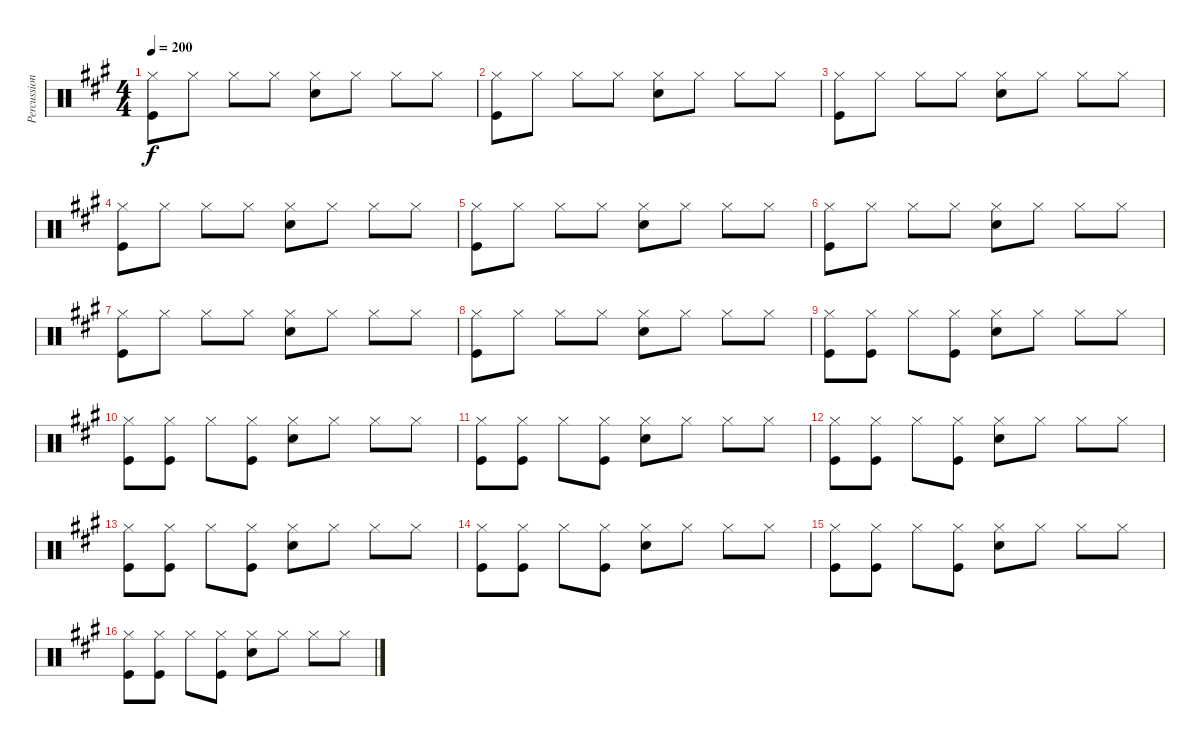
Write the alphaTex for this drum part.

\track ("Percussion" "Percussion") {instrument percussion}
\staff {score}
\articulation defaults
\ts (4 4)
\tempo 200
\clef neutral
\ks a
("Hi-Hat (closed)" "Kick (hit)").8{dy f} "Hi-Hat (closed)".8 "Hi-Hat (closed)".8 "Hi-Hat (closed)".8 ("Hi-Hat (closed)" "Snare (hit) 2").8 "Hi-Hat (closed)".8 "Hi-Hat (closed)".8 "Hi-Hat (closed)".8 |
("Hi-Hat (closed)" "Kick (hit)").8 "Hi-Hat (closed)".8 "Hi-Hat (closed)".8 "Hi-Hat (closed)".8 ("Hi-Hat (closed)" "Snare (hit) 2").8 "Hi-Hat (closed)".8 "Hi-Hat (closed)".8 "Hi-Hat (closed)".8 |
("Hi-Hat (closed)" "Kick (hit)").8 "Hi-Hat (closed)".8 "Hi-Hat (closed)".8 "Hi-Hat (closed)".8 ("Hi-Hat (closed)" "Snare (hit) 2").8 "Hi-Hat (closed)".8 "Hi-Hat (closed)".8 "Hi-Hat (closed)".8 |
("Hi-Hat (closed)" "Kick (hit)").8 "Hi-Hat (closed)".8 "Hi-Hat (closed)".8 "Hi-Hat (closed)".8 ("Hi-Hat (closed)" "Snare (hit) 2").8 "Hi-Hat (closed)".8 "Hi-Hat (closed)".8 "Hi-Hat (closed)".8 |
("Hi-Hat (closed)" "Kick (hit)").8 "Hi-Hat (closed)".8 "Hi-Hat (closed)".8 "Hi-Hat (closed)".8 ("Hi-Hat (closed)" "Snare (hit) 2").8 "Hi-Hat (closed)".8 "Hi-Hat (closed)".8 "Hi-Hat (closed)".8 |
("Hi-Hat (closed)" "Kick (hit)").8 "Hi-Hat (closed)".8 "Hi-Hat (closed)".8 "Hi-Hat (closed)".8 ("Hi-Hat (closed)" "Snare (hit) 2").8 "Hi-Hat (closed)".8 "Hi-Hat (closed)".8 "Hi-Hat (closed)".8 |
("Hi-Hat (closed)" "Kick (hit)").8 "Hi-Hat (closed)".8 "Hi-Hat (closed)".8 "Hi-Hat (closed)".8 ("Hi-Hat (closed)" "Snare (hit) 2").8 "Hi-Hat (closed)".8 "Hi-Hat (closed)".8 "Hi-Hat (closed)".8 |
("Hi-Hat (closed)" "Kick (hit)").8 "Hi-Hat (closed)".8 "Hi-Hat (closed)".8 "Hi-Hat (closed)".8 ("Hi-Hat (closed)" "Snare (hit) 2").8 "Hi-Hat (closed)".8 "Hi-Hat (closed)".8 "Hi-Hat (closed)".8 |
("Hi-Hat (closed)" "Kick (hit)").8 ("Hi-Hat (closed)" "Kick (hit)").8 "Hi-Hat (closed)".8 ("Hi-Hat (closed)" "Kick (hit)").8 ("Hi-Hat (closed)" "Snare (hit) 2").8 "Hi-Hat (closed)".8 "Hi-Hat (closed)".8 "Hi-Hat (closed)".8 |
("Hi-Hat (closed)" "Kick (hit)").8 ("Hi-Hat (closed)" "Kick (hit)").8 "Hi-Hat (closed)".8 ("Hi-Hat (closed)" "Kick (hit)").8 ("Hi-Hat (closed)" "Snare (hit) 2").8 "Hi-Hat (closed)".8 "Hi-Hat (closed)".8 "Hi-Hat (closed)".8 |
("Hi-Hat (closed)" "Kick (hit)").8 ("Hi-Hat (closed)" "Kick (hit)").8 "Hi-Hat (closed)".8 ("Hi-Hat (closed)" "Kick (hit)").8 ("Hi-Hat (closed)" "Snare (hit) 2").8 "Hi-Hat (closed)".8 "Hi-Hat (closed)".8 "Hi-Hat (closed)".8 |
("Hi-Hat (closed)" "Kick (hit)").8 ("Hi-Hat (closed)" "Kick (hit)").8 "Hi-Hat (closed)".8 ("Hi-Hat (closed)" "Kick (hit)").8 ("Hi-Hat (closed)" "Snare (hit) 2").8 "Hi-Hat (closed)".8 "Hi-Hat (closed)".8 "Hi-Hat (closed)".8 |
("Hi-Hat (closed)" "Kick (hit)").8 ("Hi-Hat (closed)" "Kick (hit)").8 "Hi-Hat (closed)".8 ("Hi-Hat (closed)" "Kick (hit)").8 ("Hi-Hat (closed)" "Snare (hit) 2").8 "Hi-Hat (closed)".8 "Hi-Hat (closed)".8 "Hi-Hat (closed)".8 |
("Hi-Hat (closed)" "Kick (hit)").8 ("Hi-Hat (closed)" "Kick (hit)").8 "Hi-Hat (closed)".8 ("Hi-Hat (closed)" "Kick (hit)").8 ("Hi-Hat (closed)" "Snare (hit) 2").8 "Hi-Hat (closed)".8 "Hi-Hat (closed)".8 "Hi-Hat (closed)".8 |
("Hi-Hat (closed)" "Kick (hit)").8 ("Hi-Hat (closed)" "Kick (hit)").8 "Hi-Hat (closed)".8 ("Hi-Hat (closed)" "Kick (hit)").8 ("Hi-Hat (closed)" "Snare (hit) 2").8 "Hi-Hat (closed)".8 "Hi-Hat (closed)".8 "Hi-Hat (closed)".8 |
("Hi-Hat (closed)" "Kick (hit)").8 ("Hi-Hat (closed)" "Kick (hit)").8 "Hi-Hat (closed)".8 ("Hi-Hat (closed)" "Kick (hit)").8 ("Hi-Hat (closed)" "Snare (hit) 2").8 "Hi-Hat (closed)".8 "Hi-Hat (closed)".8 "Hi-Hat (closed)".8
